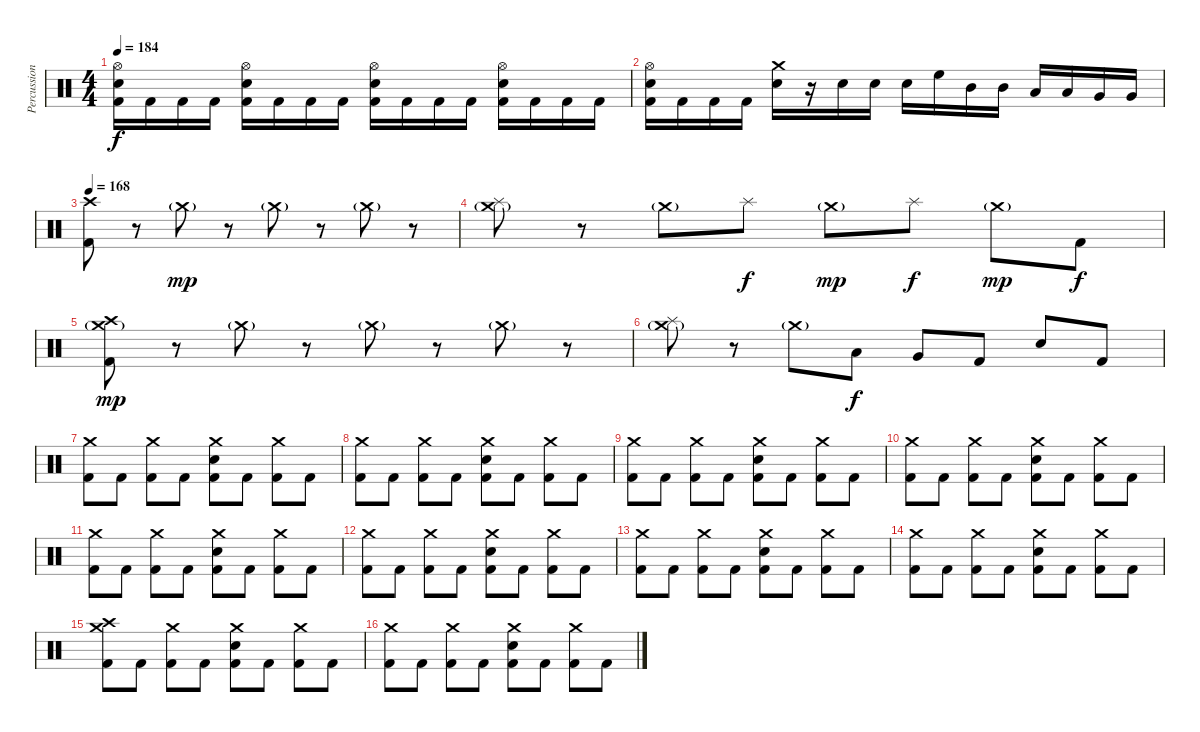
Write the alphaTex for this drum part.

\track ("Percussion" "Percussion") {instrument percussion}
\staff {score}
\articulation defaults
\ts (4 4)
\tempo 184
\clef neutral
\ks c
("Hi-Hat (open)" "Snare (hit) 2" "Kick (hit) 2").16{dy f} "Kick (hit) 2".16 "Kick (hit) 2".16 "Kick (hit) 2".16 ("Hi-Hat (open)" "Snare (hit) 2" "Kick (hit) 2").16 "Kick (hit) 2".16 "Kick (hit) 2".16 "Kick (hit) 2".16 ("Hi-Hat (open)" "Snare (hit) 2" "Kick (hit) 2").16 "Kick (hit) 2".16 "Kick (hit) 2".16 "Kick (hit) 2".16 ("Hi-Hat (open)" "Snare (hit) 2" "Kick (hit) 2").16 "Kick (hit) 2".16 "Kick (hit) 2".16 "Kick (hit) 2".16 |
("Hi-Hat (open)" "Snare (hit) 2" "Kick (hit) 2").16 "Kick (hit) 2".16 "Kick (hit) 2".16 "Kick (hit) 2".16 ("Crash medium (hit)" "Snare (hit) 2").16 r.16 "Snare (hit) 2".16 "Snare (hit) 2".16 "Snare (hit) 2".16 "High Floor Tom (hit)".16 "Mid Tom (hit)".16 "Mid Tom (hit)".16 "Low Tom (hit)".16 "Low Tom (hit)".16 "Very Low Tom (hit)".16 "Very Low Tom (hit)".16 |
\tempo 168
("Crash high (hit)" "Kick (hit) 2").8 r.8 "Crash medium (hit)"{g}.8{dy mp} r.8 "Crash medium (hit)"{g}.8 r.8 "Crash medium (hit)"{g}.8 r.8 |
("Crash medium (hit)"{g} "Splash (hit)").8 r.8 "Crash medium (hit)"{g}.8 "Splash (hit)".8{dy f} "Crash medium (hit)"{g}.8{dy mp} "Splash (hit)".8{dy f} "Crash medium (hit)"{g}.8{dy mp} "Kick (hit) 2".8{dy f} |
("Crash high (hit)" "Crash medium (hit)"{g} "Kick (hit) 2").8{dy mp} r.8 "Crash medium (hit)"{g}.8 r.8 "Crash medium (hit)"{g}.8 r.8 "Crash medium (hit)"{g}.8 r.8 |
("Crash medium (hit)"{g} "Splash (hit)").8 r.8 "Crash medium (hit)"{g}.8 "Low Tom (hit)".8{dy f} "Very Low Tom (hit)".8 "Kick (hit) 2".8 "Snare (hit) 2".8 "Kick (hit) 2".8 |
("Crash medium (hit)" "Kick (hit) 2").8 "Kick (hit) 2".8 ("Crash medium (hit)" "Kick (hit) 2").8 "Kick (hit) 2".8 ("Crash medium (hit)" "Snare (hit) 2" "Kick (hit) 2").8 "Kick (hit) 2".8 ("Crash medium (hit)" "Kick (hit) 2").8 "Kick (hit) 2".8 |
("Crash medium (hit)" "Kick (hit) 2").8 "Kick (hit) 2".8 ("Crash medium (hit)" "Kick (hit) 2").8 "Kick (hit) 2".8 ("Crash medium (hit)" "Snare (hit) 2" "Kick (hit) 2").8 "Kick (hit) 2".8 ("Crash medium (hit)" "Kick (hit) 2").8 "Kick (hit) 2".8 |
("Crash medium (hit)" "Kick (hit) 2").8 "Kick (hit) 2".8 ("Crash medium (hit)" "Kick (hit) 2").8 "Kick (hit) 2".8 ("Crash medium (hit)" "Snare (hit) 2" "Kick (hit) 2").8 "Kick (hit) 2".8 ("Crash medium (hit)" "Kick (hit) 2").8 "Kick (hit) 2".8 |
("Crash medium (hit)" "Kick (hit) 2").8 "Kick (hit) 2".8 ("Crash medium (hit)" "Kick (hit) 2").8 "Kick (hit) 2".8 ("Crash medium (hit)" "Snare (hit) 2" "Kick (hit) 2").8 "Kick (hit) 2".8 ("Crash medium (hit)" "Kick (hit) 2").8 "Kick (hit) 2".8 |
("Crash medium (hit)" "Kick (hit) 2").8 "Kick (hit) 2".8 ("Crash medium (hit)" "Kick (hit) 2").8 "Kick (hit) 2".8 ("Crash medium (hit)" "Snare (hit) 2" "Kick (hit) 2").8 "Kick (hit) 2".8 ("Crash medium (hit)" "Kick (hit) 2").8 "Kick (hit) 2".8 |
("Crash medium (hit)" "Kick (hit) 2").8 "Kick (hit) 2".8 ("Crash medium (hit)" "Kick (hit) 2").8 "Kick (hit) 2".8 ("Crash medium (hit)" "Snare (hit) 2" "Kick (hit) 2").8 "Kick (hit) 2".8 ("Crash medium (hit)" "Kick (hit) 2").8 "Kick (hit) 2".8 |
("Crash medium (hit)" "Kick (hit) 2").8 "Kick (hit) 2".8 ("Crash medium (hit)" "Kick (hit) 2").8 "Kick (hit) 2".8 ("Crash medium (hit)" "Snare (hit) 2" "Kick (hit) 2").8 "Kick (hit) 2".8 ("Crash medium (hit)" "Kick (hit) 2").8 "Kick (hit) 2".8 |
("Crash medium (hit)" "Kick (hit) 2").8 "Kick (hit) 2".8 ("Crash medium (hit)" "Kick (hit) 2").8 "Kick (hit) 2".8 ("Crash medium (hit)" "Snare (hit) 2" "Kick (hit) 2").8 "Kick (hit) 2".8 ("Crash medium (hit)" "Kick (hit) 2").8 "Kick (hit) 2".8 |
("Crash high (hit)" "Crash medium (hit)" "Kick (hit) 2").8 "Kick (hit) 2".8 ("Crash medium (hit)" "Kick (hit) 2").8 "Kick (hit) 2".8 ("Crash medium (hit)" "Snare (hit) 2" "Kick (hit) 2").8 "Kick (hit) 2".8 ("Crash medium (hit)" "Kick (hit) 2").8 "Kick (hit) 2".8 |
("Crash medium (hit)" "Kick (hit) 2").8 "Kick (hit) 2".8 ("Crash medium (hit)" "Kick (hit) 2").8 "Kick (hit) 2".8 ("Crash medium (hit)" "Snare (hit) 2" "Kick (hit) 2").8 "Kick (hit) 2".8 ("Crash medium (hit)" "Kick (hit) 2").8 "Kick (hit) 2".8
